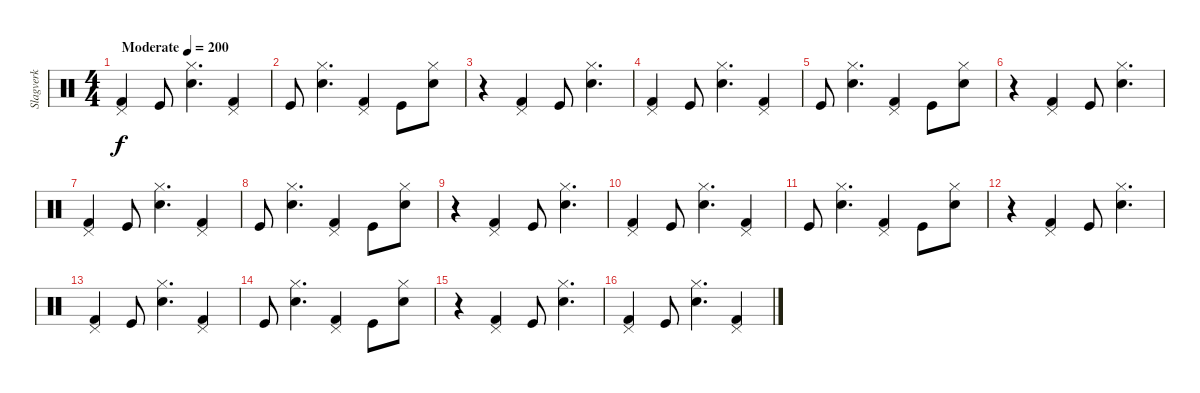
\track ("Slagverk" "Slagverk") {instrument percussion}
\staff {score}
\articulation defaults
\ts (4 4)
\tempo (200 "Moderate")
\clef neutral
\ks c
("Pedal Hi-Hat (hit)" "Kick (hit) 2").4{dy f} "Kick (hit)".8 ("Hi-Hat (closed)" "Snare (hit) 2").4{d} ("Pedal Hi-Hat (hit)" "Kick (hit) 2").4 |
"Kick (hit)".8 ("Hi-Hat (closed)" "Snare (hit) 2").4{d} ("Pedal Hi-Hat (hit)" "Kick (hit) 2").4 "Kick (hit)".8 ("Hi-Hat (closed)" "Snare (hit) 2").8 |
r.4 ("Pedal Hi-Hat (hit)" "Kick (hit) 2").4 "Kick (hit)".8 ("Hi-Hat (closed)" "Snare (hit) 2").4{d} |
("Pedal Hi-Hat (hit)" "Kick (hit) 2").4 "Kick (hit)".8 ("Hi-Hat (closed)" "Snare (hit) 2").4{d} ("Pedal Hi-Hat (hit)" "Kick (hit) 2").4 |
"Kick (hit)".8 ("Hi-Hat (closed)" "Snare (hit) 2").4{d} ("Pedal Hi-Hat (hit)" "Kick (hit) 2").4 "Kick (hit)".8 ("Hi-Hat (closed)" "Snare (hit) 2").8 |
r.4 ("Pedal Hi-Hat (hit)" "Kick (hit) 2").4 "Kick (hit)".8 ("Hi-Hat (closed)" "Snare (hit) 2").4{d} |
("Pedal Hi-Hat (hit)" "Kick (hit) 2").4 "Kick (hit)".8 ("Hi-Hat (closed)" "Snare (hit) 2").4{d} ("Pedal Hi-Hat (hit)" "Kick (hit) 2").4 |
"Kick (hit)".8 ("Hi-Hat (closed)" "Snare (hit) 2").4{d} ("Pedal Hi-Hat (hit)" "Kick (hit) 2").4 "Kick (hit)".8 ("Hi-Hat (closed)" "Snare (hit) 2").8 |
r.4 ("Pedal Hi-Hat (hit)" "Kick (hit) 2").4 "Kick (hit)".8 ("Hi-Hat (closed)" "Snare (hit) 2").4{d} |
("Pedal Hi-Hat (hit)" "Kick (hit) 2").4 "Kick (hit)".8 ("Hi-Hat (closed)" "Snare (hit) 2").4{d} ("Pedal Hi-Hat (hit)" "Kick (hit) 2").4 |
"Kick (hit)".8 ("Hi-Hat (closed)" "Snare (hit) 2").4{d} ("Pedal Hi-Hat (hit)" "Kick (hit) 2").4 "Kick (hit)".8 ("Hi-Hat (closed)" "Snare (hit) 2").8 |
r.4 ("Pedal Hi-Hat (hit)" "Kick (hit) 2").4 "Kick (hit)".8 ("Hi-Hat (closed)" "Snare (hit) 2").4{d} |
("Pedal Hi-Hat (hit)" "Kick (hit) 2").4 "Kick (hit)".8 ("Hi-Hat (closed)" "Snare (hit) 2").4{d} ("Pedal Hi-Hat (hit)" "Kick (hit) 2").4 |
"Kick (hit)".8 ("Hi-Hat (closed)" "Snare (hit) 2").4{d} ("Pedal Hi-Hat (hit)" "Kick (hit) 2").4 "Kick (hit)".8 ("Hi-Hat (closed)" "Snare (hit) 2").8 |
r.4 ("Pedal Hi-Hat (hit)" "Kick (hit) 2").4 "Kick (hit)".8 ("Hi-Hat (closed)" "Snare (hit) 2").4{d} |
("Pedal Hi-Hat (hit)" "Kick (hit) 2").4 "Kick (hit)".8 ("Hi-Hat (closed)" "Snare (hit) 2").4{d} ("Pedal Hi-Hat (hit)" "Kick (hit) 2").4
